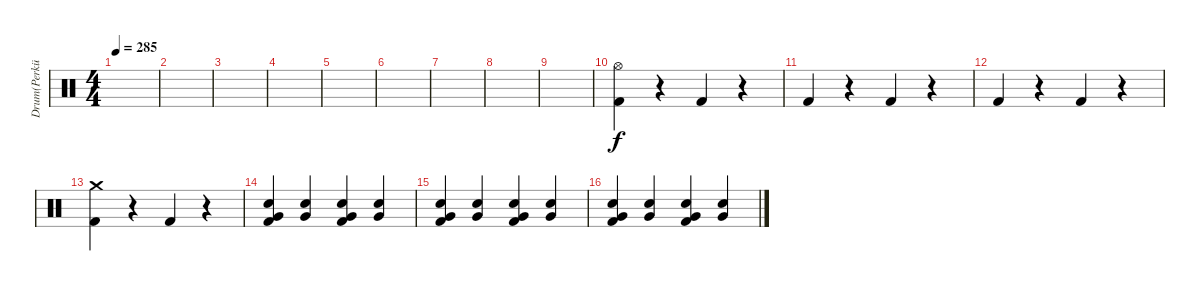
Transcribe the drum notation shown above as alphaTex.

\track ("Drum(Perküsyon)" "Drum(Perkü") {instrument percussion}
\staff {score}
\articulation defaults
\ts (4 4)
\tempo 285
\clef neutral
\ks c
|
|
|
|
|
|
|
|
|
("Kick (hit) 2" "Hi-Hat (open)").4{dy f} r.4 "Kick (hit) 2".4 r.4 |
"Kick (hit) 2".4 r.4 "Kick (hit) 2".4 r.4 |
"Kick (hit) 2".4 r.4 "Kick (hit) 2".4 r.4 |
("Kick (hit) 2" "Crash medium (hit)").4 r.4 "Kick (hit) 2".4 r.4 |
("Kick (hit) 2" "Electric Snare (hit)" "Very Low Tom (hit)").4 ("Electric Snare (hit)" "Very Low Tom (hit)").4 ("Kick (hit) 2" "Electric Snare (hit)" "Very Low Tom (hit)").4 ("Electric Snare (hit)" "Very Low Tom (hit)").4 |
("Kick (hit) 2" "Electric Snare (hit)" "Very Low Tom (hit)").4 ("Electric Snare (hit)" "Very Low Tom (hit)").4 ("Kick (hit) 2" "Electric Snare (hit)" "Very Low Tom (hit)").4 ("Electric Snare (hit)" "Very Low Tom (hit)").4 |
("Kick (hit) 2" "Electric Snare (hit)" "Very Low Tom (hit)").4 ("Electric Snare (hit)" "Very Low Tom (hit)").4 ("Kick (hit) 2" "Electric Snare (hit)" "Very Low Tom (hit)").4 ("Electric Snare (hit)" "Very Low Tom (hit)").4
